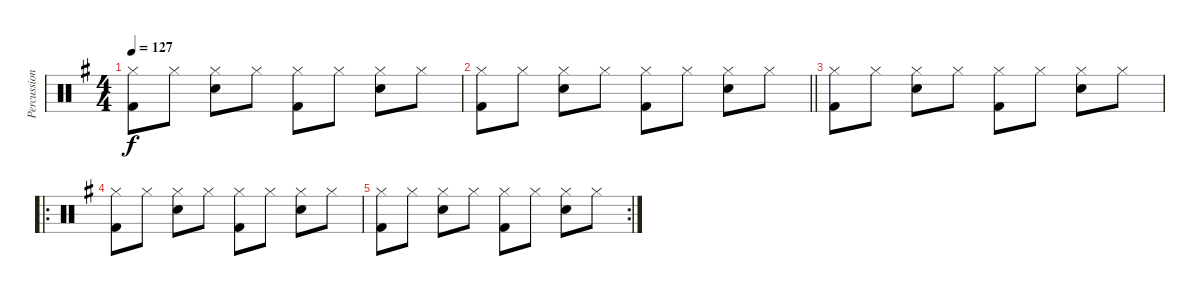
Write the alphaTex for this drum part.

\track ("Percussion" "Percussion") {instrument percussion}
\staff {score}
\articulation defaults
\ts (4 4)
\tempo 127
\clef neutral
\ks g
("Hi-Hat (closed)" "Kick (hit) 2").8{dy f} "Hi-Hat (closed)".8 ("Hi-Hat (closed)" "Snare (hit) 2").8 "Hi-Hat (closed)".8 ("Hi-Hat (closed)" "Kick (hit) 2").8 "Hi-Hat (closed)".8 ("Hi-Hat (closed)" "Snare (hit) 2").8 "Hi-Hat (closed)".8 |
\barLineRight lightlight
("Hi-Hat (closed)" "Kick (hit) 2").8 "Hi-Hat (closed)".8 ("Hi-Hat (closed)" "Snare (hit) 2").8 "Hi-Hat (closed)".8 ("Hi-Hat (closed)" "Kick (hit) 2").8 "Hi-Hat (closed)".8 ("Hi-Hat (closed)" "Snare (hit) 2").8 "Hi-Hat (closed)".8 |
("Hi-Hat (closed)" "Kick (hit) 2").8 "Hi-Hat (closed)".8 ("Hi-Hat (closed)" "Snare (hit) 2").8 "Hi-Hat (closed)".8 ("Hi-Hat (closed)" "Kick (hit) 2").8 "Hi-Hat (closed)".8 ("Hi-Hat (closed)" "Snare (hit) 2").8 "Hi-Hat (closed)".8 |
\ro
("Hi-Hat (closed)" "Kick (hit) 2").8 "Hi-Hat (closed)".8 ("Hi-Hat (closed)" "Snare (hit) 2").8 "Hi-Hat (closed)".8 ("Hi-Hat (closed)" "Kick (hit) 2").8 "Hi-Hat (closed)".8 ("Hi-Hat (closed)" "Snare (hit) 2").8 "Hi-Hat (closed)".8 |
\rc 2
("Hi-Hat (closed)" "Kick (hit) 2").8 "Hi-Hat (closed)".8 ("Hi-Hat (closed)" "Snare (hit) 2").8 "Hi-Hat (closed)".8 ("Hi-Hat (closed)" "Kick (hit) 2").8 "Hi-Hat (closed)".8 ("Hi-Hat (closed)" "Snare (hit) 2").8 "Hi-Hat (closed)".8
